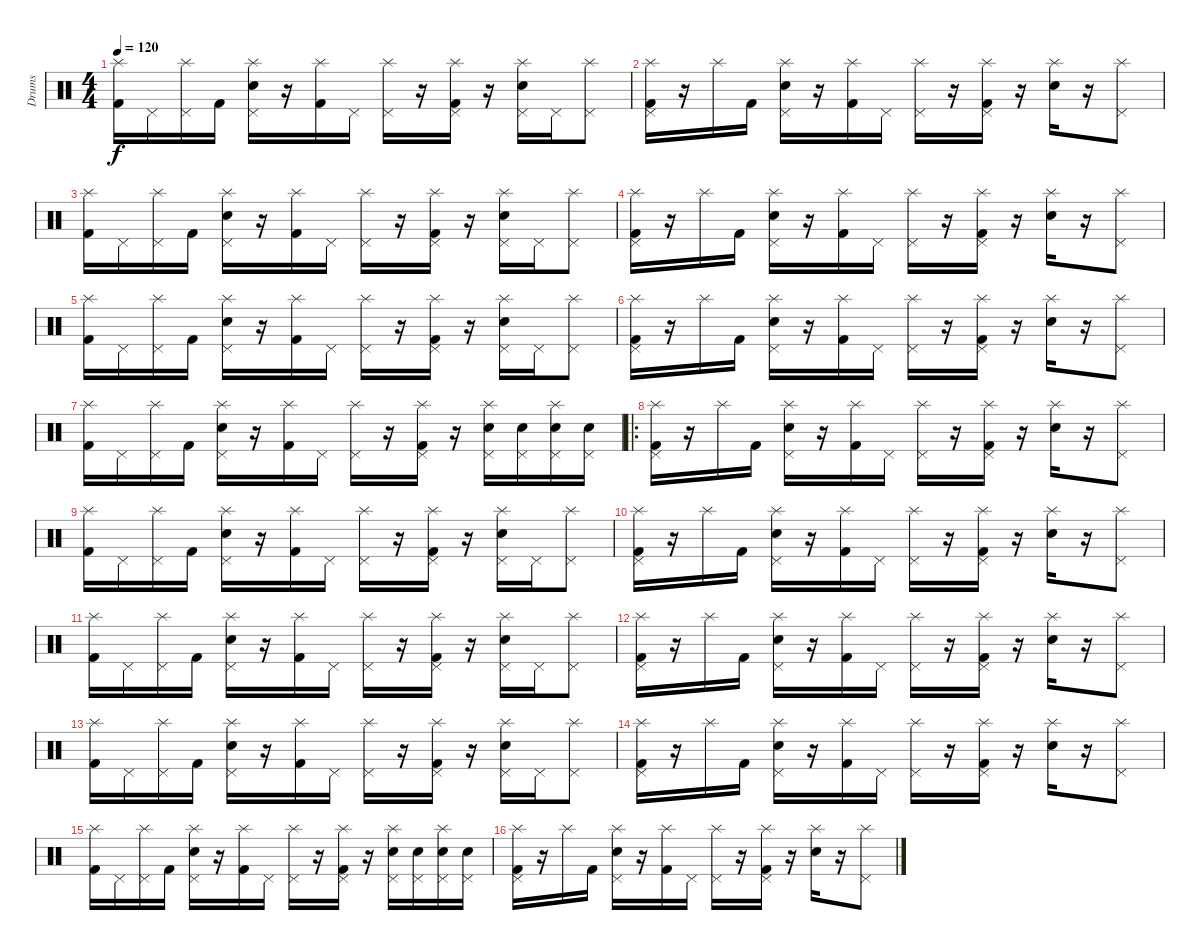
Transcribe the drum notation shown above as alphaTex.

\track ("Drums" "Drums") {instrument percussion}
\staff {score}
\articulation defaults
\ts (4 4)
\tempo 120
\clef neutral
\ks c
("Splash (hit)" "Kick (hit) 2").16{dy f} "Pedal Hi-Hat (hit)".16 ("Splash (hit)" "Pedal Hi-Hat (hit)").16 "Kick (hit) 2".16 ("Splash (hit)" "Pedal Hi-Hat (hit)" "Electric Snare (hit)").16 r.16 ("Splash (hit)" "Kick (hit) 2").16 "Pedal Hi-Hat (hit)".16 ("Splash (hit)" "Pedal Hi-Hat (hit)").16 r.16 ("Splash (hit)" "Pedal Hi-Hat (hit)" "Kick (hit) 2").16 r.16 ("Splash (hit)" "Pedal Hi-Hat (hit)" "Electric Snare (hit)").16 "Pedal Hi-Hat (hit)".16 ("Splash (hit)" "Pedal Hi-Hat (hit)").8 |
("Splash (hit)" "Pedal Hi-Hat (hit)" "Kick (hit) 2").16 r.16 "Splash (hit)".16 "Kick (hit) 2".16 ("Splash (hit)" "Pedal Hi-Hat (hit)" "Electric Snare (hit)").16 r.16 ("Splash (hit)" "Kick (hit) 2").16 "Pedal Hi-Hat (hit)".16 ("Splash (hit)" "Pedal Hi-Hat (hit)").16 r.16 ("Splash (hit)" "Pedal Hi-Hat (hit)" "Kick (hit) 2").16 r.16 ("Splash (hit)" "Electric Snare (hit)").16 r.16 ("Splash (hit)" "Pedal Hi-Hat (hit)").8 |
("Splash (hit)" "Kick (hit) 2").16 "Pedal Hi-Hat (hit)".16 ("Splash (hit)" "Pedal Hi-Hat (hit)").16 "Kick (hit) 2".16 ("Splash (hit)" "Pedal Hi-Hat (hit)" "Electric Snare (hit)").16 r.16 ("Splash (hit)" "Kick (hit) 2").16 "Pedal Hi-Hat (hit)".16 ("Splash (hit)" "Pedal Hi-Hat (hit)").16 r.16 ("Splash (hit)" "Pedal Hi-Hat (hit)" "Kick (hit) 2").16 r.16 ("Splash (hit)" "Pedal Hi-Hat (hit)" "Electric Snare (hit)").16 "Pedal Hi-Hat (hit)".16 ("Splash (hit)" "Pedal Hi-Hat (hit)").8 |
("Splash (hit)" "Pedal Hi-Hat (hit)" "Kick (hit) 2").16 r.16 "Splash (hit)".16 "Kick (hit) 2".16 ("Splash (hit)" "Pedal Hi-Hat (hit)" "Electric Snare (hit)").16 r.16 ("Splash (hit)" "Kick (hit) 2").16 "Pedal Hi-Hat (hit)".16 ("Splash (hit)" "Pedal Hi-Hat (hit)").16 r.16 ("Splash (hit)" "Pedal Hi-Hat (hit)" "Kick (hit) 2").16 r.16 ("Splash (hit)" "Electric Snare (hit)").16 r.16 ("Splash (hit)" "Pedal Hi-Hat (hit)").8 |
("Splash (hit)" "Kick (hit) 2").16 "Pedal Hi-Hat (hit)".16 ("Splash (hit)" "Pedal Hi-Hat (hit)").16 "Kick (hit) 2".16 ("Splash (hit)" "Pedal Hi-Hat (hit)" "Electric Snare (hit)").16 r.16 ("Splash (hit)" "Kick (hit) 2").16 "Pedal Hi-Hat (hit)".16 ("Splash (hit)" "Pedal Hi-Hat (hit)").16 r.16 ("Splash (hit)" "Pedal Hi-Hat (hit)" "Kick (hit) 2").16 r.16 ("Splash (hit)" "Pedal Hi-Hat (hit)" "Electric Snare (hit)").16 "Pedal Hi-Hat (hit)".16 ("Splash (hit)" "Pedal Hi-Hat (hit)").8 |
("Splash (hit)" "Pedal Hi-Hat (hit)" "Kick (hit) 2").16 r.16 "Splash (hit)".16 "Kick (hit) 2".16 ("Splash (hit)" "Pedal Hi-Hat (hit)" "Electric Snare (hit)").16 r.16 ("Splash (hit)" "Kick (hit) 2").16 "Pedal Hi-Hat (hit)".16 ("Splash (hit)" "Pedal Hi-Hat (hit)").16 r.16 ("Splash (hit)" "Pedal Hi-Hat (hit)" "Kick (hit) 2").16 r.16 ("Splash (hit)" "Electric Snare (hit)").16 r.16 ("Splash (hit)" "Pedal Hi-Hat (hit)").8 |
("Splash (hit)" "Kick (hit) 2").16 "Pedal Hi-Hat (hit)".16 ("Splash (hit)" "Pedal Hi-Hat (hit)").16 "Kick (hit) 2".16 ("Splash (hit)" "Pedal Hi-Hat (hit)" "Electric Snare (hit)").16 r.16 ("Splash (hit)" "Kick (hit) 2").16 "Pedal Hi-Hat (hit)".16 ("Splash (hit)" "Pedal Hi-Hat (hit)").16 r.16 ("Splash (hit)" "Pedal Hi-Hat (hit)" "Kick (hit) 2").16 r.16 ("Splash (hit)" "Pedal Hi-Hat (hit)" "Electric Snare (hit)").16 ("Pedal Hi-Hat (hit)" "Electric Snare (hit)").16 ("Splash (hit)" "Pedal Hi-Hat (hit)" "Electric Snare (hit)").16 ("Pedal Hi-Hat (hit)" "Electric Snare (hit)").16 |
\ro
("Splash (hit)" "Pedal Hi-Hat (hit)" "Kick (hit) 2").16 r.16 "Splash (hit)".16 "Kick (hit) 2".16 ("Splash (hit)" "Pedal Hi-Hat (hit)" "Electric Snare (hit)").16 r.16 ("Splash (hit)" "Kick (hit) 2").16 "Pedal Hi-Hat (hit)".16 ("Splash (hit)" "Pedal Hi-Hat (hit)").16 r.16 ("Splash (hit)" "Pedal Hi-Hat (hit)" "Kick (hit) 2").16 r.16 ("Splash (hit)" "Electric Snare (hit)").16 r.16 ("Splash (hit)" "Pedal Hi-Hat (hit)").8 |
("Splash (hit)" "Kick (hit) 2").16 "Pedal Hi-Hat (hit)".16 ("Splash (hit)" "Pedal Hi-Hat (hit)").16 "Kick (hit) 2".16 ("Splash (hit)" "Pedal Hi-Hat (hit)" "Electric Snare (hit)").16 r.16 ("Splash (hit)" "Kick (hit) 2").16 "Pedal Hi-Hat (hit)".16 ("Splash (hit)" "Pedal Hi-Hat (hit)").16 r.16 ("Splash (hit)" "Pedal Hi-Hat (hit)" "Kick (hit) 2").16 r.16 ("Splash (hit)" "Pedal Hi-Hat (hit)" "Electric Snare (hit)").16 "Pedal Hi-Hat (hit)".16 ("Splash (hit)" "Pedal Hi-Hat (hit)").8 |
("Splash (hit)" "Pedal Hi-Hat (hit)" "Kick (hit) 2").16 r.16 "Splash (hit)".16 "Kick (hit) 2".16 ("Splash (hit)" "Pedal Hi-Hat (hit)" "Electric Snare (hit)").16 r.16 ("Splash (hit)" "Kick (hit) 2").16 "Pedal Hi-Hat (hit)".16 ("Splash (hit)" "Pedal Hi-Hat (hit)").16 r.16 ("Splash (hit)" "Pedal Hi-Hat (hit)" "Kick (hit) 2").16 r.16 ("Splash (hit)" "Electric Snare (hit)").16 r.16 ("Splash (hit)" "Pedal Hi-Hat (hit)").8 |
("Splash (hit)" "Kick (hit) 2").16 "Pedal Hi-Hat (hit)".16 ("Splash (hit)" "Pedal Hi-Hat (hit)").16 "Kick (hit) 2".16 ("Splash (hit)" "Pedal Hi-Hat (hit)" "Electric Snare (hit)").16 r.16 ("Splash (hit)" "Kick (hit) 2").16 "Pedal Hi-Hat (hit)".16 ("Splash (hit)" "Pedal Hi-Hat (hit)").16 r.16 ("Splash (hit)" "Pedal Hi-Hat (hit)" "Kick (hit) 2").16 r.16 ("Splash (hit)" "Pedal Hi-Hat (hit)" "Electric Snare (hit)").16 "Pedal Hi-Hat (hit)".16 ("Splash (hit)" "Pedal Hi-Hat (hit)").8 |
("Splash (hit)" "Pedal Hi-Hat (hit)" "Kick (hit) 2").16 r.16 "Splash (hit)".16 "Kick (hit) 2".16 ("Splash (hit)" "Pedal Hi-Hat (hit)" "Electric Snare (hit)").16 r.16 ("Splash (hit)" "Kick (hit) 2").16 "Pedal Hi-Hat (hit)".16 ("Splash (hit)" "Pedal Hi-Hat (hit)").16 r.16 ("Splash (hit)" "Pedal Hi-Hat (hit)" "Kick (hit) 2").16 r.16 ("Splash (hit)" "Electric Snare (hit)").16 r.16 ("Splash (hit)" "Pedal Hi-Hat (hit)").8 |
("Splash (hit)" "Kick (hit) 2").16 "Pedal Hi-Hat (hit)".16 ("Splash (hit)" "Pedal Hi-Hat (hit)").16 "Kick (hit) 2".16 ("Splash (hit)" "Pedal Hi-Hat (hit)" "Electric Snare (hit)").16 r.16 ("Splash (hit)" "Kick (hit) 2").16 "Pedal Hi-Hat (hit)".16 ("Splash (hit)" "Pedal Hi-Hat (hit)").16 r.16 ("Splash (hit)" "Pedal Hi-Hat (hit)" "Kick (hit) 2").16 r.16 ("Splash (hit)" "Pedal Hi-Hat (hit)" "Electric Snare (hit)").16 "Pedal Hi-Hat (hit)".16 ("Splash (hit)" "Pedal Hi-Hat (hit)").8 |
("Splash (hit)" "Pedal Hi-Hat (hit)" "Kick (hit) 2").16 r.16 "Splash (hit)".16 "Kick (hit) 2".16 ("Splash (hit)" "Pedal Hi-Hat (hit)" "Electric Snare (hit)").16 r.16 ("Splash (hit)" "Kick (hit) 2").16 "Pedal Hi-Hat (hit)".16 ("Splash (hit)" "Pedal Hi-Hat (hit)").16 r.16 ("Splash (hit)" "Pedal Hi-Hat (hit)" "Kick (hit) 2").16 r.16 ("Splash (hit)" "Electric Snare (hit)").16 r.16 ("Splash (hit)" "Pedal Hi-Hat (hit)").8 |
("Splash (hit)" "Kick (hit) 2").16 "Pedal Hi-Hat (hit)".16 ("Splash (hit)" "Pedal Hi-Hat (hit)").16 "Kick (hit) 2".16 ("Splash (hit)" "Pedal Hi-Hat (hit)" "Electric Snare (hit)").16 r.16 ("Splash (hit)" "Kick (hit) 2").16 "Pedal Hi-Hat (hit)".16 ("Splash (hit)" "Pedal Hi-Hat (hit)").16 r.16 ("Splash (hit)" "Pedal Hi-Hat (hit)" "Kick (hit) 2").16 r.16 ("Splash (hit)" "Pedal Hi-Hat (hit)" "Electric Snare (hit)").16 ("Pedal Hi-Hat (hit)" "Electric Snare (hit)").16 ("Splash (hit)" "Pedal Hi-Hat (hit)" "Electric Snare (hit)").16 ("Pedal Hi-Hat (hit)" "Electric Snare (hit)").16 |
("Splash (hit)" "Pedal Hi-Hat (hit)" "Kick (hit) 2").16 r.16 "Splash (hit)".16 "Kick (hit) 2".16 ("Splash (hit)" "Pedal Hi-Hat (hit)" "Electric Snare (hit)").16 r.16 ("Splash (hit)" "Kick (hit) 2").16 "Pedal Hi-Hat (hit)".16 ("Splash (hit)" "Pedal Hi-Hat (hit)").16 r.16 ("Splash (hit)" "Pedal Hi-Hat (hit)" "Kick (hit) 2").16 r.16 ("Splash (hit)" "Electric Snare (hit)").16 r.16 ("Splash (hit)" "Pedal Hi-Hat (hit)").8
